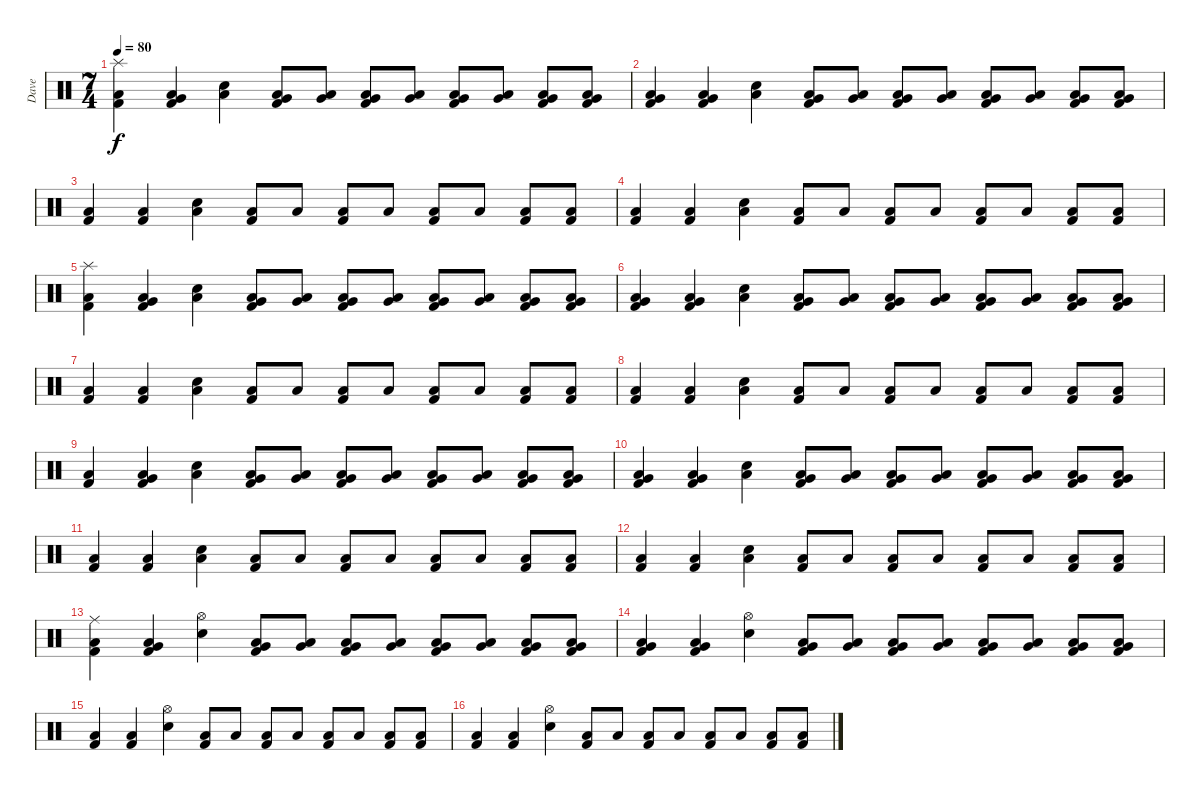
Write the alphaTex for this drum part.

\track ("Dave" "Dave") {instrument percussion}
\staff {score}
\articulation defaults
\ts (7 4)
\tempo 80
\clef neutral
\ks c
("Splash (hit)" "Low Floor Tom (hit)" "Kick (hit) 2").4{dy f} ("Very Low Tom (hit)" "Low Floor Tom (hit)" "Kick (hit) 2").4 ("Low Floor Tom (hit)" "Electric Snare (hit)").4 ("Very Low Tom (hit)" "Low Floor Tom (hit)" "Kick (hit) 2").8 ("Very Low Tom (hit)" "Low Floor Tom (hit)").8 ("Very Low Tom (hit)" "Low Floor Tom (hit)" "Kick (hit) 2").8 ("Very Low Tom (hit)" "Low Floor Tom (hit)").8 ("Very Low Tom (hit)" "Low Floor Tom (hit)" "Kick (hit) 2").8 ("Very Low Tom (hit)" "Low Floor Tom (hit)").8 ("Very Low Tom (hit)" "Low Floor Tom (hit)" "Kick (hit) 2").8 ("Very Low Tom (hit)" "Low Floor Tom (hit)" "Kick (hit) 2").8 |
("Very Low Tom (hit)" "Low Floor Tom (hit)" "Kick (hit) 2").4 ("Very Low Tom (hit)" "Low Floor Tom (hit)" "Kick (hit) 2").4 ("Low Floor Tom (hit)" "Electric Snare (hit)").4 ("Very Low Tom (hit)" "Low Floor Tom (hit)" "Kick (hit) 2").8 ("Very Low Tom (hit)" "Low Floor Tom (hit)").8 ("Very Low Tom (hit)" "Low Floor Tom (hit)" "Kick (hit) 2").8 ("Very Low Tom (hit)" "Low Floor Tom (hit)").8 ("Very Low Tom (hit)" "Low Floor Tom (hit)" "Kick (hit) 2").8 ("Very Low Tom (hit)" "Low Floor Tom (hit)").8 ("Very Low Tom (hit)" "Low Floor Tom (hit)" "Kick (hit) 2").8 ("Very Low Tom (hit)" "Low Floor Tom (hit)" "Kick (hit) 2").8 |
("Low Floor Tom (hit)" "Kick (hit) 2").4 ("Low Floor Tom (hit)" "Kick (hit) 2").4 ("Low Floor Tom (hit)" "Electric Snare (hit)").4 ("Low Floor Tom (hit)" "Kick (hit) 2").8 "Low Floor Tom (hit)".8 ("Low Floor Tom (hit)" "Kick (hit) 2").8 "Low Floor Tom (hit)".8 ("Low Floor Tom (hit)" "Kick (hit) 2").8 "Low Floor Tom (hit)".8 ("Low Floor Tom (hit)" "Kick (hit) 2").8 ("Low Floor Tom (hit)" "Kick (hit) 2").8 |
("Low Floor Tom (hit)" "Kick (hit) 2").4 ("Low Floor Tom (hit)" "Kick (hit) 2").4 ("Low Floor Tom (hit)" "Electric Snare (hit)").4 ("Low Floor Tom (hit)" "Kick (hit) 2").8 "Low Floor Tom (hit)".8 ("Low Floor Tom (hit)" "Kick (hit) 2").8 "Low Floor Tom (hit)".8 ("Low Floor Tom (hit)" "Kick (hit) 2").8 "Low Floor Tom (hit)".8 ("Low Floor Tom (hit)" "Kick (hit) 2").8 ("Low Floor Tom (hit)" "Kick (hit) 2").8 |
("Splash (hit)" "Low Floor Tom (hit)" "Kick (hit) 2").4 ("Very Low Tom (hit)" "Low Floor Tom (hit)" "Kick (hit) 2").4 ("Low Floor Tom (hit)" "Electric Snare (hit)").4 ("Very Low Tom (hit)" "Low Floor Tom (hit)" "Kick (hit) 2").8 ("Very Low Tom (hit)" "Low Floor Tom (hit)").8 ("Very Low Tom (hit)" "Low Floor Tom (hit)" "Kick (hit) 2").8 ("Very Low Tom (hit)" "Low Floor Tom (hit)").8 ("Very Low Tom (hit)" "Low Floor Tom (hit)" "Kick (hit) 2").8 ("Very Low Tom (hit)" "Low Floor Tom (hit)").8 ("Very Low Tom (hit)" "Low Floor Tom (hit)" "Kick (hit) 2").8 ("Very Low Tom (hit)" "Low Floor Tom (hit)" "Kick (hit) 2").8 |
("Very Low Tom (hit)" "Low Floor Tom (hit)" "Kick (hit) 2").4 ("Very Low Tom (hit)" "Low Floor Tom (hit)" "Kick (hit) 2").4 ("Low Floor Tom (hit)" "Electric Snare (hit)").4 ("Very Low Tom (hit)" "Low Floor Tom (hit)" "Kick (hit) 2").8 ("Very Low Tom (hit)" "Low Floor Tom (hit)").8 ("Very Low Tom (hit)" "Low Floor Tom (hit)" "Kick (hit) 2").8 ("Very Low Tom (hit)" "Low Floor Tom (hit)").8 ("Very Low Tom (hit)" "Low Floor Tom (hit)" "Kick (hit) 2").8 ("Very Low Tom (hit)" "Low Floor Tom (hit)").8 ("Very Low Tom (hit)" "Low Floor Tom (hit)" "Kick (hit) 2").8 ("Very Low Tom (hit)" "Low Floor Tom (hit)" "Kick (hit) 2").8 |
("Low Floor Tom (hit)" "Kick (hit) 2").4 ("Low Floor Tom (hit)" "Kick (hit) 2").4 ("Low Floor Tom (hit)" "Electric Snare (hit)").4 ("Low Floor Tom (hit)" "Kick (hit) 2").8 "Low Floor Tom (hit)".8 ("Low Floor Tom (hit)" "Kick (hit) 2").8 "Low Floor Tom (hit)".8 ("Low Floor Tom (hit)" "Kick (hit) 2").8 "Low Floor Tom (hit)".8 ("Low Floor Tom (hit)" "Kick (hit) 2").8 ("Low Floor Tom (hit)" "Kick (hit) 2").8 |
("Low Floor Tom (hit)" "Kick (hit) 2").4 ("Low Floor Tom (hit)" "Kick (hit) 2").4 ("Low Floor Tom (hit)" "Electric Snare (hit)").4 ("Low Floor Tom (hit)" "Kick (hit) 2").8 "Low Floor Tom (hit)".8 ("Low Floor Tom (hit)" "Kick (hit) 2").8 "Low Floor Tom (hit)".8 ("Low Floor Tom (hit)" "Kick (hit) 2").8 "Low Floor Tom (hit)".8 ("Low Floor Tom (hit)" "Kick (hit) 2").8 ("Low Floor Tom (hit)" "Kick (hit) 2").8 |
("Low Floor Tom (hit)" "Kick (hit) 2").4 ("Very Low Tom (hit)" "Low Floor Tom (hit)" "Kick (hit) 2").4 ("Low Floor Tom (hit)" "Electric Snare (hit)").4 ("Very Low Tom (hit)" "Low Floor Tom (hit)" "Kick (hit) 2").8 ("Very Low Tom (hit)" "Low Floor Tom (hit)").8 ("Very Low Tom (hit)" "Low Floor Tom (hit)" "Kick (hit) 2").8 ("Very Low Tom (hit)" "Low Floor Tom (hit)").8 ("Very Low Tom (hit)" "Low Floor Tom (hit)" "Kick (hit) 2").8 ("Very Low Tom (hit)" "Low Floor Tom (hit)").8 ("Very Low Tom (hit)" "Low Floor Tom (hit)" "Kick (hit) 2").8 ("Very Low Tom (hit)" "Low Floor Tom (hit)" "Kick (hit) 2").8 |
("Very Low Tom (hit)" "Low Floor Tom (hit)" "Kick (hit) 2").4 ("Very Low Tom (hit)" "Low Floor Tom (hit)" "Kick (hit) 2").4 ("Low Floor Tom (hit)" "Electric Snare (hit)").4 ("Very Low Tom (hit)" "Low Floor Tom (hit)" "Kick (hit) 2").8 ("Very Low Tom (hit)" "Low Floor Tom (hit)").8 ("Very Low Tom (hit)" "Low Floor Tom (hit)" "Kick (hit) 2").8 ("Very Low Tom (hit)" "Low Floor Tom (hit)").8 ("Very Low Tom (hit)" "Low Floor Tom (hit)" "Kick (hit) 2").8 ("Very Low Tom (hit)" "Low Floor Tom (hit)").8 ("Very Low Tom (hit)" "Low Floor Tom (hit)" "Kick (hit) 2").8 ("Very Low Tom (hit)" "Low Floor Tom (hit)" "Kick (hit) 2").8 |
("Low Floor Tom (hit)" "Kick (hit) 2").4 ("Low Floor Tom (hit)" "Kick (hit) 2").4 ("Low Floor Tom (hit)" "Electric Snare (hit)").4 ("Low Floor Tom (hit)" "Kick (hit) 2").8 "Low Floor Tom (hit)".8 ("Low Floor Tom (hit)" "Kick (hit) 2").8 "Low Floor Tom (hit)".8 ("Low Floor Tom (hit)" "Kick (hit) 2").8 "Low Floor Tom (hit)".8 ("Low Floor Tom (hit)" "Kick (hit) 2").8 ("Low Floor Tom (hit)" "Kick (hit) 2").8 |
("Low Floor Tom (hit)" "Kick (hit) 2").4 ("Low Floor Tom (hit)" "Kick (hit) 2").4 ("Low Floor Tom (hit)" "Electric Snare (hit)").4 ("Low Floor Tom (hit)" "Kick (hit) 2").8 "Low Floor Tom (hit)".8 ("Low Floor Tom (hit)" "Kick (hit) 2").8 "Low Floor Tom (hit)".8 ("Low Floor Tom (hit)" "Kick (hit) 2").8 "Low Floor Tom (hit)".8 ("Low Floor Tom (hit)" "Kick (hit) 2").8 ("Low Floor Tom (hit)" "Kick (hit) 2").8 |
("Ride (middle)" "Low Floor Tom (hit)" "Kick (hit) 2").4 ("Very Low Tom (hit)" "Low Floor Tom (hit)" "Kick (hit) 2").4 ("Hi-Hat (open)" "Electric Snare (hit)").4 ("Very Low Tom (hit)" "Low Floor Tom (hit)" "Kick (hit) 2").8 ("Very Low Tom (hit)" "Low Floor Tom (hit)").8 ("Very Low Tom (hit)" "Low Floor Tom (hit)" "Kick (hit) 2").8 ("Very Low Tom (hit)" "Low Floor Tom (hit)").8 ("Very Low Tom (hit)" "Low Floor Tom (hit)" "Kick (hit) 2").8 ("Very Low Tom (hit)" "Low Floor Tom (hit)").8 ("Very Low Tom (hit)" "Low Floor Tom (hit)" "Kick (hit) 2").8 ("Very Low Tom (hit)" "Low Floor Tom (hit)" "Kick (hit) 2").8 |
("Very Low Tom (hit)" "Low Floor Tom (hit)" "Kick (hit) 2").4 ("Very Low Tom (hit)" "Low Floor Tom (hit)" "Kick (hit) 2").4 ("Hi-Hat (open)" "Electric Snare (hit)").4 ("Very Low Tom (hit)" "Low Floor Tom (hit)" "Kick (hit) 2").8 ("Very Low Tom (hit)" "Low Floor Tom (hit)").8 ("Very Low Tom (hit)" "Low Floor Tom (hit)" "Kick (hit) 2").8 ("Very Low Tom (hit)" "Low Floor Tom (hit)").8 ("Very Low Tom (hit)" "Low Floor Tom (hit)" "Kick (hit) 2").8 ("Very Low Tom (hit)" "Low Floor Tom (hit)").8 ("Very Low Tom (hit)" "Low Floor Tom (hit)" "Kick (hit) 2").8 ("Very Low Tom (hit)" "Low Floor Tom (hit)" "Kick (hit) 2").8 |
("Low Floor Tom (hit)" "Kick (hit) 2").4 ("Low Floor Tom (hit)" "Kick (hit) 2").4 ("Hi-Hat (open)" "Electric Snare (hit)").4 ("Low Floor Tom (hit)" "Kick (hit) 2").8 "Low Floor Tom (hit)".8 ("Low Floor Tom (hit)" "Kick (hit) 2").8 "Low Floor Tom (hit)".8 ("Low Floor Tom (hit)" "Kick (hit) 2").8 "Low Floor Tom (hit)".8 ("Low Floor Tom (hit)" "Kick (hit) 2").8 ("Low Floor Tom (hit)" "Kick (hit) 2").8 |
("Low Floor Tom (hit)" "Kick (hit) 2").4 ("Low Floor Tom (hit)" "Kick (hit) 2").4 ("Hi-Hat (open)" "Electric Snare (hit)").4 ("Low Floor Tom (hit)" "Kick (hit) 2").8 "Low Floor Tom (hit)".8 ("Low Floor Tom (hit)" "Kick (hit) 2").8 "Low Floor Tom (hit)".8 ("Low Floor Tom (hit)" "Kick (hit) 2").8 "Low Floor Tom (hit)".8 ("Low Floor Tom (hit)" "Kick (hit) 2").8 ("Low Floor Tom (hit)" "Kick (hit) 2").8
